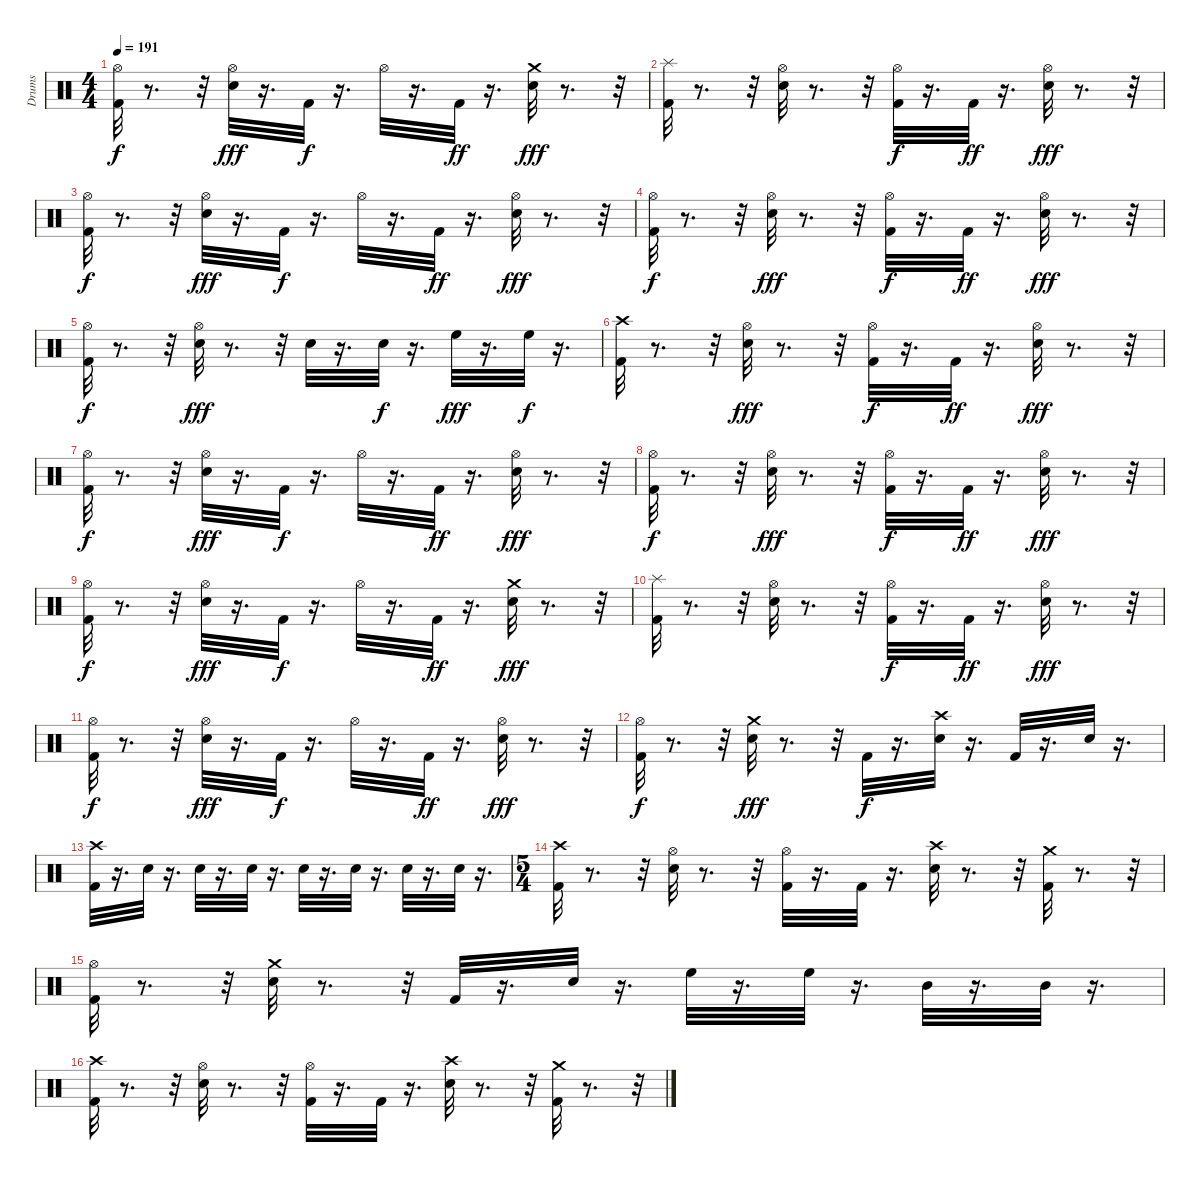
\track ("Drums" "Drums") {instrument percussion}
\staff {score}
\articulation defaults
\ts (4 4)
\tempo 191
\clef neutral
\ks c
("Kick (hit) 2" "Hi-Hat (open)").32{dy f} r.8{d} r.32 ("Snare (hit) 2" "Hi-Hat (open)").32{dy fff} r.16{d} "Kick (hit) 2".32{dy f} r.16{d} "Hi-Hat (open)".32 r.16{d} "Kick (hit) 2".32{dy ff} r.16{d} ("Snare (hit) 2" "Crash medium (hit)").32{dy fff} r.8{d} r.32 |
("Splash (hit)" "Kick (hit) 2").32 r.8{d} r.32 ("Snare (hit) 2" "Hi-Hat (open)").32 r.8{d} r.32 ("Kick (hit) 2" "Hi-Hat (open)").32{dy f} r.16{d} "Kick (hit) 2".32{dy ff} r.16{d} ("Snare (hit) 2" "Hi-Hat (open)").32{dy fff} r.8{d} r.32 |
("Kick (hit) 2" "Hi-Hat (open)").32{dy f} r.8{d} r.32 ("Snare (hit) 2" "Hi-Hat (open)").32{dy fff} r.16{d} "Kick (hit) 2".32{dy f} r.16{d} "Hi-Hat (open)".32 r.16{d} "Kick (hit) 2".32{dy ff} r.16{d} ("Snare (hit) 2" "Hi-Hat (open)").32{dy fff} r.8{d} r.32 |
("Kick (hit) 2" "Hi-Hat (open)").32{dy f} r.8{d} r.32 ("Snare (hit) 2" "Hi-Hat (open)").32{dy fff} r.8{d} r.32 ("Kick (hit) 2" "Hi-Hat (open)").32{dy f} r.16{d} "Kick (hit) 2".32{dy ff} r.16{d} ("Snare (hit) 2" "Hi-Hat (open)").32{dy fff} r.8{d} r.32 |
("Kick (hit) 2" "Hi-Hat (open)").32{dy f} r.8{d} r.32 ("Snare (hit) 2" "Hi-Hat (open)").32{dy fff} r.8{d} r.32 "Snare (hit) 2".32 r.16{d} "Snare (hit) 2".32{dy f} r.16{d} "High Floor Tom (hit)".32{dy fff} r.16{d} "High Floor Tom (hit)".32{dy f} r.16{d} |
("Crash high (hit)" "Kick (hit) 2").32 r.8{d} r.32 ("Snare (hit) 2" "Hi-Hat (open)").32{dy fff} r.8{d} r.32 ("Kick (hit) 2" "Hi-Hat (open)").32{dy f} r.16{d} "Kick (hit) 2".32{dy ff} r.16{d} ("Snare (hit) 2" "Hi-Hat (open)").32{dy fff} r.8{d} r.32 |
("Kick (hit) 2" "Hi-Hat (open)").32{dy f} r.8{d} r.32 ("Snare (hit) 2" "Hi-Hat (open)").32{dy fff} r.16{d} "Kick (hit) 2".32{dy f} r.16{d} "Hi-Hat (open)".32 r.16{d} "Kick (hit) 2".32{dy ff} r.16{d} ("Snare (hit) 2" "Hi-Hat (open)").32{dy fff} r.8{d} r.32 |
("Kick (hit) 2" "Hi-Hat (open)").32{dy f} r.8{d} r.32 ("Snare (hit) 2" "Hi-Hat (open)").32{dy fff} r.8{d} r.32 ("Kick (hit) 2" "Hi-Hat (open)").32{dy f} r.16{d} "Kick (hit) 2".32{dy ff} r.16{d} ("Snare (hit) 2" "Hi-Hat (open)").32{dy fff} r.8{d} r.32 |
("Kick (hit) 2" "Hi-Hat (open)").32{dy f} r.8{d} r.32 ("Snare (hit) 2" "Hi-Hat (open)").32{dy fff} r.16{d} "Kick (hit) 2".32{dy f} r.16{d} "Hi-Hat (open)".32 r.16{d} "Kick (hit) 2".32{dy ff} r.16{d} ("Snare (hit) 2" "Crash medium (hit)").32{dy fff} r.8{d} r.32 |
("Splash (hit)" "Kick (hit) 2").32 r.8{d} r.32 ("Snare (hit) 2" "Hi-Hat (open)").32 r.8{d} r.32 ("Kick (hit) 2" "Hi-Hat (open)").32{dy f} r.16{d} "Kick (hit) 2".32{dy ff} r.16{d} ("Snare (hit) 2" "Hi-Hat (open)").32{dy fff} r.8{d} r.32 |
("Kick (hit) 2" "Hi-Hat (open)").32{dy f} r.8{d} r.32 ("Snare (hit) 2" "Hi-Hat (open)").32{dy fff} r.16{d} "Kick (hit) 2".32{dy f} r.16{d} "Hi-Hat (open)".32 r.16{d} "Kick (hit) 2".32{dy ff} r.16{d} ("Snare (hit) 2" "Hi-Hat (open)").32{dy fff} r.8{d} r.32 |
("Kick (hit) 2" "Hi-Hat (open)").32{dy f} r.8{d} r.32 ("Snare (hit) 2" "Crash medium (hit)").32{dy fff} r.8{d} r.32 "Kick (hit) 2".32{dy f} r.16{d} ("Crash high (hit)" "Snare (hit) 2").32 r.16{d} "Kick (hit) 2".32 r.16{d} "Snare (hit) 2".32 r.16{d} |
("Crash high (hit)" "Kick (hit) 2").32 r.16{d} "Snare (hit) 2".32 r.16{d} "Snare (hit) 2".32 r.16{d} "Snare (hit) 2".32 r.16{d} "Snare (hit) 2".32 r.16{d} "Snare (hit) 2".32 r.16{d} "Snare (hit) 2".32 r.16{d} "Snare (hit) 2".32 r.16{d} |
\ts (5 4)
("Crash high (hit)" "Kick (hit) 2").32 r.8{d} r.32 ("Hi-Hat (open)" "Snare (hit) 2").32 r.8{d} r.32 ("Hi-Hat (open)" "Kick (hit) 2").32 r.16{d} "Kick (hit) 2".32 r.16{d} ("Crash high (hit)" "Snare (hit) 2").32 r.8{d} r.32 ("Crash medium (hit)" "Kick (hit) 2").32 r.8{d} r.32 |
("Hi-Hat (open)" "Kick (hit) 2").32 r.8{d} r.32 ("Crash medium (hit)" "Snare (hit) 2").32 r.8{d} r.32 "Kick (hit) 2".32 r.16{d} "Snare (hit) 2".32 r.16{d} "High Floor Tom (hit)".32 r.16{d} "High Floor Tom (hit)".32 r.16{d} "Mid Tom (hit)".32 r.16{d} "Mid Tom (hit)".32 r.16{d} |
("Crash high (hit)" "Kick (hit) 2").32 r.8{d} r.32 ("Hi-Hat (open)" "Snare (hit) 2").32 r.8{d} r.32 ("Hi-Hat (open)" "Kick (hit) 2").32 r.16{d} "Kick (hit) 2".32 r.16{d} ("Crash high (hit)" "Snare (hit) 2").32 r.8{d} r.32 ("Crash medium (hit)" "Kick (hit) 2").32 r.8{d} r.32
